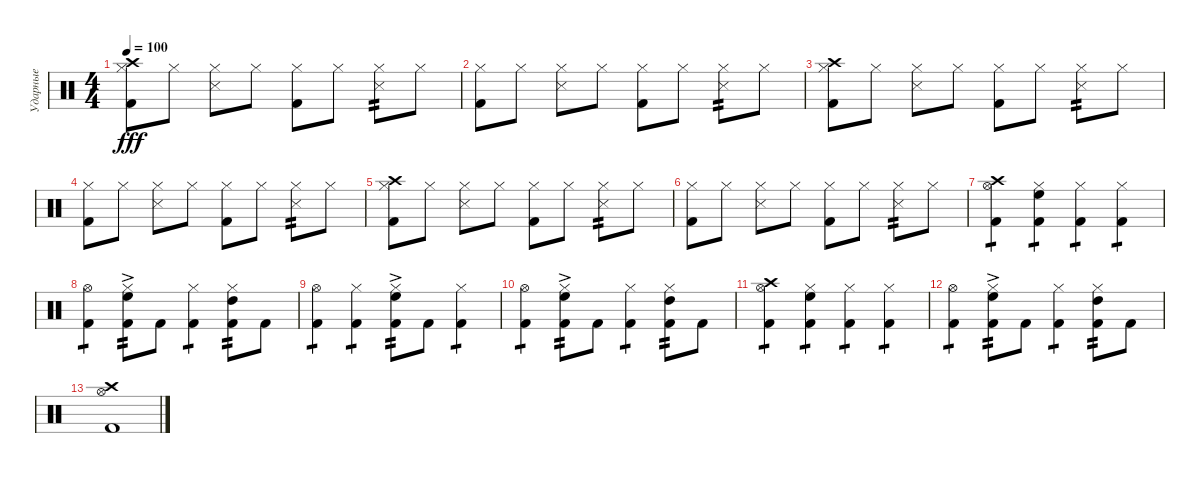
\track ("Ударные" "Ударные") {instrument percussion}
\staff {score}
\articulation defaults
\ts (4 4)
\tempo 100
\clef neutral
\ks c
("Hi-Hat (closed)" "Kick (hit) 2" "Crash high (hit)").8{dy fff} "Hi-Hat (closed)".8 ("Hi-Hat (closed)" "Snare (side stick) 3").8 "Hi-Hat (closed)".8 ("Hi-Hat (closed)" "Kick (hit) 2").8 "Hi-Hat (closed)".8 ("Hi-Hat (closed)" "Snare (side stick) 3").8{tp 2} "Hi-Hat (closed)".8 |
("Hi-Hat (closed)" "Kick (hit) 2").8 "Hi-Hat (closed)".8 ("Hi-Hat (closed)" "Snare (side stick) 3").8 "Hi-Hat (closed)".8 ("Hi-Hat (closed)" "Kick (hit) 2").8 "Hi-Hat (closed)".8 ("Hi-Hat (closed)" "Snare (side stick) 3").8{tp 2} "Hi-Hat (closed)".8 |
("Hi-Hat (closed)" "Kick (hit) 2" "Crash high (hit)").8 "Hi-Hat (closed)".8 ("Hi-Hat (closed)" "Snare (side stick) 3").8 "Hi-Hat (closed)".8 ("Hi-Hat (closed)" "Kick (hit) 2").8 "Hi-Hat (closed)".8 ("Hi-Hat (closed)" "Snare (side stick) 3").8{tp 2} "Hi-Hat (closed)".8 |
("Hi-Hat (closed)" "Kick (hit) 2").8 "Hi-Hat (closed)".8 ("Hi-Hat (closed)" "Snare (side stick) 3").8 "Hi-Hat (closed)".8 ("Hi-Hat (closed)" "Kick (hit) 2").8 "Hi-Hat (closed)".8 ("Hi-Hat (closed)" "Snare (side stick) 3").8{tp 2} "Hi-Hat (closed)".8 |
("Hi-Hat (closed)" "Kick (hit) 2" "Crash high (hit)").8 "Hi-Hat (closed)".8 ("Hi-Hat (closed)" "Snare (side stick) 3").8 "Hi-Hat (closed)".8 ("Hi-Hat (closed)" "Kick (hit) 2").8 "Hi-Hat (closed)".8 ("Hi-Hat (closed)" "Snare (side stick) 3").8{tp 2} "Hi-Hat (closed)".8 |
("Hi-Hat (closed)" "Kick (hit) 2").8 "Hi-Hat (closed)".8 ("Hi-Hat (closed)" "Snare (side stick) 3").8 "Hi-Hat (closed)".8 ("Hi-Hat (closed)" "Kick (hit) 2").8 "Hi-Hat (closed)".8 ("Hi-Hat (closed)" "Snare (side stick) 3").8{tp 2} "Hi-Hat (closed)".8 |
("Hi-Hat (open)" "Kick (hit) 2" "Crash high (hit)").4{tp 1} ("Hi-Hat (closed)" "Kick (hit) 2" "High Floor Tom (hit)").4{tp 1} ("Hi-Hat (closed)" "Kick (hit) 2").4{tp 1} ("Hi-Hat (closed)" "Kick (hit) 2").4{tp 1} |
("Hi-Hat (open)" "Kick (hit) 2").4{tp 1} ("Hi-Hat (closed)" "Kick (hit) 2" "High Floor Tom (hit)"{ac}).8{tp 2} "Kick (hit) 2".8 ("Hi-Hat (closed)" "Kick (hit) 2").4{tp 1} ("Hi-Hat (closed)" "Kick (hit) 2" "High Tom (hit)").8{tp 2} "Kick (hit) 2".8 |
("Hi-Hat (open)" "Kick (hit) 2").4{tp 1} ("Hi-Hat (closed)" "Kick (hit) 2").4{tp 1} ("Hi-Hat (closed)" "Kick (hit) 2" "High Floor Tom (hit)"{ac}).8{tp 2} "Kick (hit) 2".8 ("Hi-Hat (closed)" "Kick (hit) 2").4{tp 1} |
("Hi-Hat (open)" "Kick (hit) 2").4{tp 1} ("Hi-Hat (closed)" "Kick (hit) 2" "High Floor Tom (hit)"{ac}).8{tp 2} "Kick (hit) 2".8 ("Hi-Hat (closed)" "Kick (hit) 2").4{tp 1} ("Hi-Hat (closed)" "Kick (hit) 2" "High Tom (hit)").8{tp 2} "Kick (hit) 2".8 |
("Hi-Hat (open)" "Kick (hit) 2" "Crash high (hit)").4{tp 1} ("Hi-Hat (closed)" "Kick (hit) 2" "High Floor Tom (hit)").4{tp 1} ("Hi-Hat (closed)" "Kick (hit) 2").4{tp 1} ("Hi-Hat (closed)" "Kick (hit) 2").4{tp 1} |
("Hi-Hat (open)" "Kick (hit) 2").4{tp 1} ("Hi-Hat (closed)" "Kick (hit) 2" "High Floor Tom (hit)"{ac}).8{tp 2} "Kick (hit) 2".8 ("Hi-Hat (closed)" "Kick (hit) 2").4{tp 1} ("Hi-Hat (closed)" "Kick (hit) 2" "High Tom (hit)").8{tp 2} "Kick (hit) 2".8 |
("Hi-Hat (open)" "Kick (hit) 2" "Crash high (hit)").1
